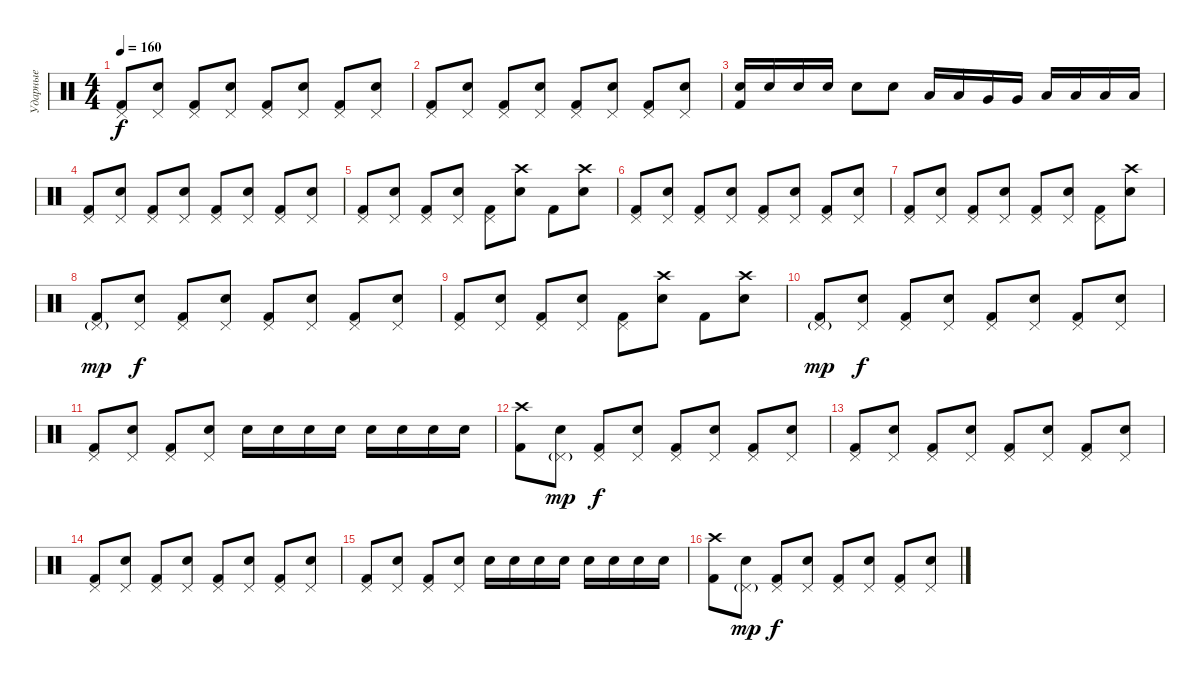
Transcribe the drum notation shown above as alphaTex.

\track ("Ударные" "Ударные") {instrument percussion}
\staff {score}
\articulation defaults
\ts (4 4)
\tempo 160
\clef neutral
\ks c
("Kick (hit) 2" "Pedal Hi-Hat (hit)").8{dy f} ("Electric Snare (hit)" "Pedal Hi-Hat (hit)").8 ("Kick (hit) 2" "Pedal Hi-Hat (hit)").8 ("Electric Snare (hit)" "Pedal Hi-Hat (hit)").8 ("Kick (hit) 2" "Pedal Hi-Hat (hit)").8 ("Electric Snare (hit)" "Pedal Hi-Hat (hit)").8 ("Kick (hit) 2" "Pedal Hi-Hat (hit)").8 ("Electric Snare (hit)" "Pedal Hi-Hat (hit)").8 |
("Kick (hit) 2" "Pedal Hi-Hat (hit)").8 ("Electric Snare (hit)" "Pedal Hi-Hat (hit)").8 ("Kick (hit) 2" "Pedal Hi-Hat (hit)").8 ("Electric Snare (hit)" "Pedal Hi-Hat (hit)").8 ("Kick (hit) 2" "Pedal Hi-Hat (hit)").8 ("Electric Snare (hit)" "Pedal Hi-Hat (hit)").8 ("Kick (hit) 2" "Pedal Hi-Hat (hit)").8 ("Electric Snare (hit)" "Pedal Hi-Hat (hit)").8 |
("Electric Snare (hit)" "Kick (hit) 2").16 "Electric Snare (hit)".16 "Electric Snare (hit)".16 "Electric Snare (hit)".16 "Electric Snare (hit)".8 "Electric Snare (hit)".8 "Low Tom (hit)".16 "Low Tom (hit)".16 "Very Low Tom (hit)".16 "Very Low Tom (hit)".16 "Low Floor Tom (hit)".16 "Low Floor Tom (hit)".16 "Low Floor Tom (hit)".16 "Low Floor Tom (hit)".16 |
("Kick (hit) 2" "Pedal Hi-Hat (hit)").8 ("Electric Snare (hit)" "Pedal Hi-Hat (hit)").8 ("Kick (hit) 2" "Pedal Hi-Hat (hit)").8 ("Electric Snare (hit)" "Pedal Hi-Hat (hit)").8 ("Kick (hit) 2" "Pedal Hi-Hat (hit)").8 ("Electric Snare (hit)" "Pedal Hi-Hat (hit)").8 ("Kick (hit) 2" "Pedal Hi-Hat (hit)").8 ("Electric Snare (hit)" "Pedal Hi-Hat (hit)").8 |
("Kick (hit) 2" "Pedal Hi-Hat (hit)").8 ("Electric Snare (hit)" "Pedal Hi-Hat (hit)").8 ("Kick (hit) 2" "Pedal Hi-Hat (hit)").8 ("Electric Snare (hit)" "Pedal Hi-Hat (hit)").8 ("Kick (hit) 2" "Pedal Hi-Hat (hit)").8 ("Electric Snare (hit)" "Crash high (hit)").8 "Kick (hit) 2".8 ("Electric Snare (hit)" "Crash high (hit)").8 |
("Kick (hit) 2" "Pedal Hi-Hat (hit)").8 ("Electric Snare (hit)" "Pedal Hi-Hat (hit)").8 ("Kick (hit) 2" "Pedal Hi-Hat (hit)").8 ("Electric Snare (hit)" "Pedal Hi-Hat (hit)").8 ("Kick (hit) 2" "Pedal Hi-Hat (hit)").8 ("Electric Snare (hit)" "Pedal Hi-Hat (hit)").8 ("Kick (hit) 2" "Pedal Hi-Hat (hit)").8 ("Electric Snare (hit)" "Pedal Hi-Hat (hit)").8 |
("Kick (hit) 2" "Pedal Hi-Hat (hit)").8 ("Electric Snare (hit)" "Pedal Hi-Hat (hit)").8 ("Kick (hit) 2" "Pedal Hi-Hat (hit)").8 ("Electric Snare (hit)" "Pedal Hi-Hat (hit)").8 ("Kick (hit) 2" "Pedal Hi-Hat (hit)").8 ("Electric Snare (hit)" "Pedal Hi-Hat (hit)").8 ("Kick (hit) 2" "Pedal Hi-Hat (hit)").8 ("Electric Snare (hit)" "Crash high (hit)").8 |
("Kick (hit) 2" "Pedal Hi-Hat (hit)"{g}).8{dy mp} ("Electric Snare (hit)" "Pedal Hi-Hat (hit)").8{dy f} ("Kick (hit) 2" "Pedal Hi-Hat (hit)").8 ("Electric Snare (hit)" "Pedal Hi-Hat (hit)").8 ("Kick (hit) 2" "Pedal Hi-Hat (hit)").8 ("Electric Snare (hit)" "Pedal Hi-Hat (hit)").8 ("Kick (hit) 2" "Pedal Hi-Hat (hit)").8 ("Electric Snare (hit)" "Pedal Hi-Hat (hit)").8 |
("Kick (hit) 2" "Pedal Hi-Hat (hit)").8 ("Electric Snare (hit)" "Pedal Hi-Hat (hit)").8 ("Kick (hit) 2" "Pedal Hi-Hat (hit)").8 ("Electric Snare (hit)" "Pedal Hi-Hat (hit)").8 ("Kick (hit) 2" "Pedal Hi-Hat (hit)").8 ("Electric Snare (hit)" "Crash high (hit)").8 "Kick (hit) 2".8 ("Electric Snare (hit)" "Crash high (hit)").8 |
("Kick (hit) 2" "Pedal Hi-Hat (hit)"{g}).8{dy mp} ("Electric Snare (hit)" "Pedal Hi-Hat (hit)").8{dy f} ("Kick (hit) 2" "Pedal Hi-Hat (hit)").8 ("Electric Snare (hit)" "Pedal Hi-Hat (hit)").8 ("Kick (hit) 2" "Pedal Hi-Hat (hit)").8 ("Electric Snare (hit)" "Pedal Hi-Hat (hit)").8 ("Kick (hit) 2" "Pedal Hi-Hat (hit)").8 ("Electric Snare (hit)" "Pedal Hi-Hat (hit)").8 |
("Kick (hit) 2" "Pedal Hi-Hat (hit)").8 ("Electric Snare (hit)" "Pedal Hi-Hat (hit)").8 ("Kick (hit) 2" "Pedal Hi-Hat (hit)").8 ("Electric Snare (hit)" "Pedal Hi-Hat (hit)").8 "Electric Snare (hit)".16 "Electric Snare (hit)".16 "Electric Snare (hit)".16 "Electric Snare (hit)".16 "Electric Snare (hit)".16 "Electric Snare (hit)".16 "Electric Snare (hit)".16 "Electric Snare (hit)".16 |
("Kick (hit) 2" "Crash high (hit)").8 ("Electric Snare (hit)" "Pedal Hi-Hat (hit)"{g}).8{dy mp} ("Kick (hit) 2" "Pedal Hi-Hat (hit)").8{dy f} ("Electric Snare (hit)" "Pedal Hi-Hat (hit)").8 ("Kick (hit) 2" "Pedal Hi-Hat (hit)").8 ("Electric Snare (hit)" "Pedal Hi-Hat (hit)").8 ("Kick (hit) 2" "Pedal Hi-Hat (hit)").8 ("Electric Snare (hit)" "Pedal Hi-Hat (hit)").8 |
("Kick (hit) 2" "Pedal Hi-Hat (hit)").8 ("Electric Snare (hit)" "Pedal Hi-Hat (hit)").8 ("Kick (hit) 2" "Pedal Hi-Hat (hit)").8 ("Electric Snare (hit)" "Pedal Hi-Hat (hit)").8 ("Kick (hit) 2" "Pedal Hi-Hat (hit)").8 ("Electric Snare (hit)" "Pedal Hi-Hat (hit)").8 ("Kick (hit) 2" "Pedal Hi-Hat (hit)").8 ("Electric Snare (hit)" "Pedal Hi-Hat (hit)").8 |
("Kick (hit) 2" "Pedal Hi-Hat (hit)").8 ("Electric Snare (hit)" "Pedal Hi-Hat (hit)").8 ("Kick (hit) 2" "Pedal Hi-Hat (hit)").8 ("Electric Snare (hit)" "Pedal Hi-Hat (hit)").8 ("Kick (hit) 2" "Pedal Hi-Hat (hit)").8 ("Electric Snare (hit)" "Pedal Hi-Hat (hit)").8 ("Kick (hit) 2" "Pedal Hi-Hat (hit)").8 ("Electric Snare (hit)" "Pedal Hi-Hat (hit)").8 |
("Kick (hit) 2" "Pedal Hi-Hat (hit)").8 ("Electric Snare (hit)" "Pedal Hi-Hat (hit)").8 ("Kick (hit) 2" "Pedal Hi-Hat (hit)").8 ("Electric Snare (hit)" "Pedal Hi-Hat (hit)").8 "Electric Snare (hit)".16 "Electric Snare (hit)".16 "Electric Snare (hit)".16 "Electric Snare (hit)".16 "Electric Snare (hit)".16 "Electric Snare (hit)".16 "Electric Snare (hit)".16 "Electric Snare (hit)".16 |
("Kick (hit) 2" "Crash high (hit)").8 ("Electric Snare (hit)" "Pedal Hi-Hat (hit)"{g}).8{dy mp} ("Kick (hit) 2" "Pedal Hi-Hat (hit)").8{dy f} ("Electric Snare (hit)" "Pedal Hi-Hat (hit)").8 ("Kick (hit) 2" "Pedal Hi-Hat (hit)").8 ("Electric Snare (hit)" "Pedal Hi-Hat (hit)").8 ("Kick (hit) 2" "Pedal Hi-Hat (hit)").8 ("Electric Snare (hit)" "Pedal Hi-Hat (hit)").8
